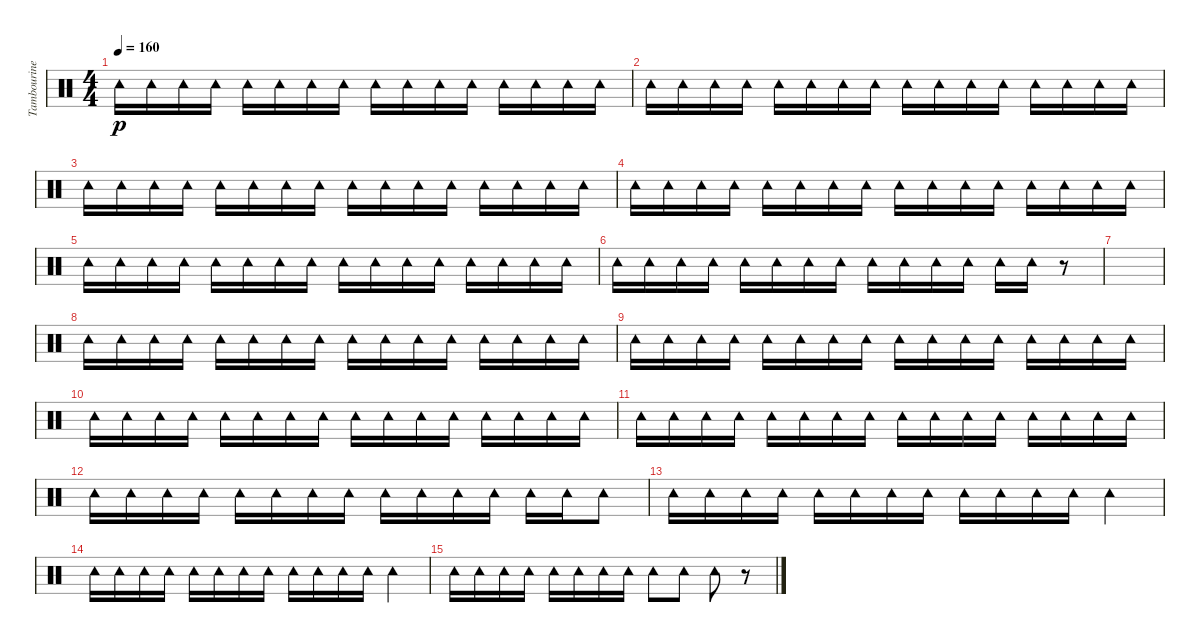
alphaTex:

\track ("Tambourine" "Tambourine") {instrument percussion}
\staff {score}
\articulation defaults
\ts (4 4)
\tempo 160
\clef neutral
\ks c "Tambourine (hit)".16{dy p} "Tambourine (hit)".16 "Tambourine (hit)".16 "Tambourine (hit)".16 "Tambourine (hit)".16 "Tambourine (hit)".16 "Tambourine (hit)".16 "Tambourine (hit)".16 "Tambourine (hit)".16 "Tambourine (hit)".16 "Tambourine (hit)".16 "Tambourine (hit)".16 "Tambourine (hit)".16 "Tambourine (hit)".16 "Tambourine (hit)".16 "Tambourine (hit)".16
|
"Tambourine (hit)".16 "Tambourine (hit)".16 "Tambourine (hit)".16 "Tambourine (hit)".16 "Tambourine (hit)".16 "Tambourine (hit)".16 "Tambourine (hit)".16 "Tambourine (hit)".16 "Tambourine (hit)".16 "Tambourine (hit)".16 "Tambourine (hit)".16 "Tambourine (hit)".16 "Tambourine (hit)".16 "Tambourine (hit)".16 "Tambourine (hit)".16 "Tambourine (hit)".16 |
"Tambourine (hit)".16 "Tambourine (hit)".16 "Tambourine (hit)".16 "Tambourine (hit)".16 "Tambourine (hit)".16 "Tambourine (hit)".16 "Tambourine (hit)".16 "Tambourine (hit)".16 "Tambourine (hit)".16 "Tambourine (hit)".16 "Tambourine (hit)".16 "Tambourine (hit)".16 "Tambourine (hit)".16 "Tambourine (hit)".16 "Tambourine (hit)".16 "Tambourine (hit)".16 |
"Tambourine (hit)".16 "Tambourine (hit)".16 "Tambourine (hit)".16 "Tambourine (hit)".16 "Tambourine (hit)".16 "Tambourine (hit)".16 "Tambourine (hit)".16 "Tambourine (hit)".16 "Tambourine (hit)".16 "Tambourine (hit)".16 "Tambourine (hit)".16 "Tambourine (hit)".16 "Tambourine (hit)".16 "Tambourine (hit)".16 "Tambourine (hit)".16 "Tambourine (hit)".16 |
"Tambourine (hit)".16 "Tambourine (hit)".16 "Tambourine (hit)".16 "Tambourine (hit)".16 "Tambourine (hit)".16 "Tambourine (hit)".16 "Tambourine (hit)".16 "Tambourine (hit)".16 "Tambourine (hit)".16 "Tambourine (hit)".16 "Tambourine (hit)".16 "Tambourine (hit)".16 "Tambourine (hit)".16 "Tambourine (hit)".16 "Tambourine (hit)".16 "Tambourine (hit)".16 |
"Tambourine (hit)".16 "Tambourine (hit)".16 "Tambourine (hit)".16 "Tambourine (hit)".16 "Tambourine (hit)".16 "Tambourine (hit)".16 "Tambourine (hit)".16 "Tambourine (hit)".16 "Tambourine (hit)".16 "Tambourine (hit)".16 "Tambourine (hit)".16 "Tambourine (hit)".16 "Tambourine (hit)".16 "Tambourine (hit)".16 r.8 |
|
"Tambourine (hit)".16 "Tambourine (hit)".16 "Tambourine (hit)".16 "Tambourine (hit)".16 "Tambourine (hit)".16 "Tambourine (hit)".16 "Tambourine (hit)".16 "Tambourine (hit)".16 "Tambourine (hit)".16 "Tambourine (hit)".16 "Tambourine (hit)".16 "Tambourine (hit)".16 "Tambourine (hit)".16 "Tambourine (hit)".16 "Tambourine (hit)".16 "Tambourine (hit)".16 |
"Tambourine (hit)".16 "Tambourine (hit)".16 "Tambourine (hit)".16 "Tambourine (hit)".16 "Tambourine (hit)".16 "Tambourine (hit)".16 "Tambourine (hit)".16 "Tambourine (hit)".16 "Tambourine (hit)".16 "Tambourine (hit)".16 "Tambourine (hit)".16 "Tambourine (hit)".16 "Tambourine (hit)".16 "Tambourine (hit)".16 "Tambourine (hit)".16 "Tambourine (hit)".16 |
"Tambourine (hit)".16 "Tambourine (hit)".16 "Tambourine (hit)".16 "Tambourine (hit)".16 "Tambourine (hit)".16 "Tambourine (hit)".16 "Tambourine (hit)".16 "Tambourine (hit)".16 "Tambourine (hit)".16 "Tambourine (hit)".16 "Tambourine (hit)".16 "Tambourine (hit)".16 "Tambourine (hit)".16 "Tambourine (hit)".16 "Tambourine (hit)".16 "Tambourine (hit)".16 |
"Tambourine (hit)".16 "Tambourine (hit)".16 "Tambourine (hit)".16 "Tambourine (hit)".16 "Tambourine (hit)".16 "Tambourine (hit)".16 "Tambourine (hit)".16 "Tambourine (hit)".16 "Tambourine (hit)".16 "Tambourine (hit)".16 "Tambourine (hit)".16 "Tambourine (hit)".16 "Tambourine (hit)".16 "Tambourine (hit)".16 "Tambourine (hit)".16 "Tambourine (hit)".16 |
"Tambourine (hit)".16 "Tambourine (hit)".16 "Tambourine (hit)".16 "Tambourine (hit)".16 "Tambourine (hit)".16 "Tambourine (hit)".16 "Tambourine (hit)".16 "Tambourine (hit)".16 "Tambourine (hit)".16 "Tambourine (hit)".16 "Tambourine (hit)".16 "Tambourine (hit)".16 "Tambourine (hit)".16 "Tambourine (hit)".16 "Tambourine (hit)".8 |
"Tambourine (hit)".16 "Tambourine (hit)".16 "Tambourine (hit)".16 "Tambourine (hit)".16 "Tambourine (hit)".16 "Tambourine (hit)".16 "Tambourine (hit)".16 "Tambourine (hit)".16 "Tambourine (hit)".16 "Tambourine (hit)".16 "Tambourine (hit)".16 "Tambourine (hit)".16 "Tambourine (hit)".4 |
"Tambourine (hit)".16 "Tambourine (hit)".16 "Tambourine (hit)".16 "Tambourine (hit)".16 "Tambourine (hit)".16 "Tambourine (hit)".16 "Tambourine (hit)".16 "Tambourine (hit)".16 "Tambourine (hit)".16 "Tambourine (hit)".16 "Tambourine (hit)".16 "Tambourine (hit)".16 "Tambourine (hit)".4 |
"Tambourine (hit)".16 "Tambourine (hit)".16 "Tambourine (hit)".16 "Tambourine (hit)".16 "Tambourine (hit)".16 "Tambourine (hit)".16 "Tambourine (hit)".16 "Tambourine (hit)".16 "Tambourine (hit)".8 "Tambourine (hit)".8 "Tambourine (hit)".8 r.8
